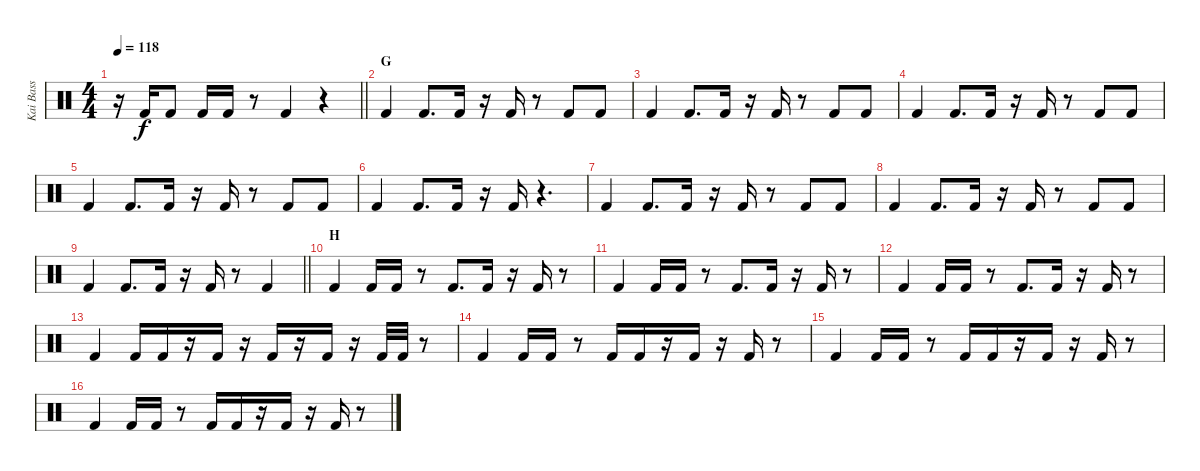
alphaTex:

\track ("Kai Bass" "Kai Bass") {instrument percussion}
\staff {score}
\articulation defaults
\ts (4 4)
\tempo 118
\clef neutral
\barLineRight lightlight
\ks c
r.16{dy f} "Kick (hit) 2".16 "Kick (hit) 2".8 "Kick (hit) 2".16 "Kick (hit) 2".16 r.8 "Kick (hit) 2".4 r.4 |
\section ("" "G")
"Kick (hit) 2".4 "Kick (hit) 2".8{d} "Kick (hit) 2".16 r.16 "Kick (hit) 2".16 r.8 "Kick (hit) 2".8 "Kick (hit) 2".8 |
"Kick (hit) 2".4 "Kick (hit) 2".8{d} "Kick (hit) 2".16 r.16 "Kick (hit) 2".16 r.8 "Kick (hit) 2".8 "Kick (hit) 2".8 |
"Kick (hit) 2".4 "Kick (hit) 2".8{d} "Kick (hit) 2".16 r.16 "Kick (hit) 2".16 r.8 "Kick (hit) 2".8 "Kick (hit) 2".8 |
"Kick (hit) 2".4 "Kick (hit) 2".8{d} "Kick (hit) 2".16 r.16 "Kick (hit) 2".16 r.8 "Kick (hit) 2".8 "Kick (hit) 2".8 |
"Kick (hit) 2".4 "Kick (hit) 2".8{d} "Kick (hit) 2".16 r.16 "Kick (hit) 2".16 r.4{d} |
"Kick (hit) 2".4 "Kick (hit) 2".8{d} "Kick (hit) 2".16 r.16 "Kick (hit) 2".16 r.8 "Kick (hit) 2".8 "Kick (hit) 2".8 |
"Kick (hit) 2".4 "Kick (hit) 2".8{d} "Kick (hit) 2".16 r.16 "Kick (hit) 2".16 r.8 "Kick (hit) 2".8 "Kick (hit) 2".8 |
\barLineRight lightlight "Kick (hit) 2".4 "Kick (hit) 2".8{d} "Kick (hit) 2".16
r.16 "Kick (hit) 2".16 r.8 "Kick (hit) 2".4 |
\section ("" "H")
"Kick (hit) 2".4 "Kick (hit) 2".16 "Kick (hit) 2".16 r.8 "Kick (hit) 2".8{d} "Kick (hit) 2".16 r.16 "Kick (hit) 2".16 r.8 |
"Kick (hit) 2".4 "Kick (hit) 2".16 "Kick (hit) 2".16 r.8 "Kick (hit) 2".8{d} "Kick (hit) 2".16 r.16 "Kick (hit) 2".16 r.8 |
"Kick (hit) 2".4 "Kick (hit) 2".16 "Kick (hit) 2".16 r.8 "Kick (hit) 2".8{d} "Kick (hit) 2".16 r.16 "Kick (hit) 2".16 r.8 |
"Kick (hit) 2".4 "Kick (hit) 2".16 "Kick (hit) 2".16 r.16 "Kick (hit) 2".16 r.16 "Kick (hit) 2".16 r.16 "Kick (hit) 2".16 r.16 "Kick (hit) 2".32 "Kick (hit) 2".32 r.8 |
"Kick (hit) 2".4 "Kick (hit) 2".16 "Kick (hit) 2".16 r.8 "Kick (hit) 2".16 "Kick (hit) 2".16 r.16 "Kick (hit) 2".16 r.16 "Kick (hit) 2".16 r.8 |
"Kick (hit) 2".4 "Kick (hit) 2".16 "Kick (hit) 2".16 r.8 "Kick (hit) 2".16 "Kick (hit) 2".16 r.16 "Kick (hit) 2".16 r.16 "Kick (hit) 2".16 r.8 |
"Kick (hit) 2".4 "Kick (hit) 2".16 "Kick (hit) 2".16 r.8 "Kick (hit) 2".16 "Kick (hit) 2".16 r.16 "Kick (hit) 2".16 r.16 "Kick (hit) 2".16 r.8
